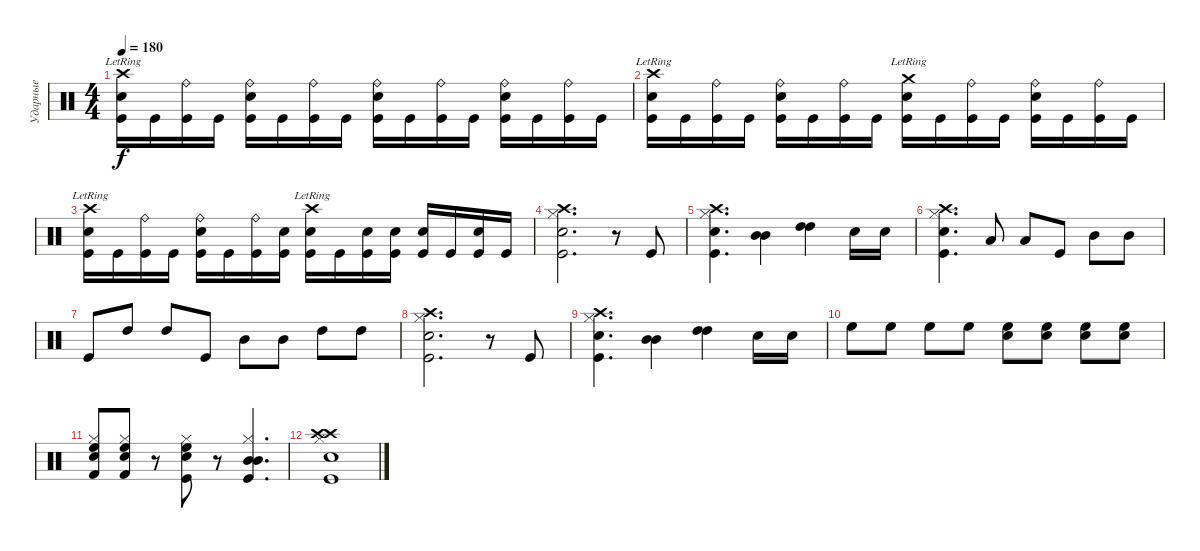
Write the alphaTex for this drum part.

\track ("Ударные" "Ударные") {instrument percussion}
\staff {score}
\articulation defaults
\ts (4 4)
\tempo 180
\clef neutral
\ks c
("Crash high (hit)"{lr} "Electric Snare (hit)" "Kick (hit)").16{dy f} "Kick (hit)".16 ("Ride (bell)" "Kick (hit)").16 "Kick (hit)".16 ("Ride (bell)" "Electric Snare (hit)" "Kick (hit)").16 "Kick (hit)".16 ("Ride (bell)" "Kick (hit)").16 "Kick (hit)".16 ("Ride (bell)" "Electric Snare (hit)" "Kick (hit)").16 "Kick (hit)".16 ("Ride (bell)" "Kick (hit)").16 "Kick (hit)".16 ("Ride (bell)" "Electric Snare (hit)" "Kick (hit)").16 "Kick (hit)".16 ("Ride (bell)" "Kick (hit)").16 "Kick (hit)".16 |
("Crash high (hit)"{lr} "Electric Snare (hit)" "Kick (hit)").16 "Kick (hit)".16 ("Ride (bell)" "Kick (hit)").16 "Kick (hit)".16 ("Ride (bell)" "Electric Snare (hit)" "Kick (hit)").16 "Kick (hit)".16 ("Ride (bell)" "Kick (hit)").16 "Kick (hit)".16 ("Crash medium (hit)"{lr} "Electric Snare (hit)" "Kick (hit)").16 "Kick (hit)".16 ("Ride (bell)" "Kick (hit)").16 "Kick (hit)".16 ("Ride (bell)" "Electric Snare (hit)" "Kick (hit)").16 "Kick (hit)".16 ("Ride (bell)" "Kick (hit)").16 "Kick (hit)".16 |
("Crash high (hit)"{lr} "Electric Snare (hit)" "Kick (hit)").16 "Kick (hit)".16 ("Ride (bell)" "Kick (hit)").16 "Kick (hit)".16 ("Ride (bell)" "Electric Snare (hit)" "Kick (hit)").16 "Kick (hit)".16 ("Ride (bell)" "Kick (hit)").16 ("Electric Snare (hit)" "Kick (hit)").16 ("Crash high (hit)"{lr} "Electric Snare (hit)" "Kick (hit)").16 "Kick (hit)".16 ("Electric Snare (hit)" "Kick (hit)").16 ("Electric Snare (hit)" "Kick (hit)").16 ("Electric Snare (hit)" "Kick (hit)").16 "Kick (hit)".16 ("Electric Snare (hit)" "Kick (hit)").16 "Kick (hit)".16 |
("Crash high (hit)" "Hi-Hat (closed)" "Electric Snare (hit)" "Kick (hit)").2{d} r.8 "Kick (hit)".8 |
("Crash high (hit)" "Hi-Hat (closed)" "Electric Snare (hit)" "Kick (hit)").4{d} ("Mid Tom (hit)" "Mid Tom (hit)").4 ("High Tom (hit)" "High Tom (hit)").4 "Electric Snare (hit)".16 "Electric Snare (hit)".16 |
("Crash high (hit)" "Hi-Hat (closed)" "Electric Snare (hit)" "Kick (hit)").4{d} "Low Tom (hit)".8 "Low Tom (hit)".8 "Kick (hit)".8 "Mid Tom (hit)".8 "Mid Tom (hit)".8 |
"Kick (hit)".8 "High Tom (hit)".8 "High Tom (hit)".8 "Kick (hit)".8 "Mid Tom (hit)".8 "Mid Tom (hit)".8 "High Tom (hit)".8 "High Tom (hit)".8 |
("Crash high (hit)" "Hi-Hat (closed)" "Electric Snare (hit)" "Kick (hit)").2{d} r.8 "Kick (hit)".8 |
("Crash high (hit)" "Hi-Hat (closed)" "Electric Snare (hit)" "Kick (hit)").4{d} ("Mid Tom (hit)" "Mid Tom (hit)").4 ("High Tom (hit)" "High Tom (hit)").4 "Electric Snare (hit)".16 "Electric Snare (hit)".16 |
"High Floor Tom (hit)".8 "High Floor Tom (hit)".8 "High Floor Tom (hit)".8 "High Floor Tom (hit)".8 ("Electric Snare (hit)" "High Floor Tom (hit)").8 ("Electric Snare (hit)" "High Floor Tom (hit)").8 ("Electric Snare (hit)" "High Floor Tom (hit)").8 ("Electric Snare (hit)" "High Floor Tom (hit)").8 |
("Hi-Hat (closed)" "Electric Snare (hit)" "High Floor Tom (hit)" "Kick (hit) 2").8 ("Hi-Hat (closed)" "Electric Snare (hit)" "High Floor Tom (hit)" "Kick (hit) 2").8 r.8 ("Hi-Hat (closed)" "Electric Snare (hit)" "High Floor Tom (hit)" "Kick (hit)").8 r.8 ("Hi-Hat (closed)" "Mid Tom (hit)" "Mid Tom (hit)" "Kick (hit)").4{d} |
("Crash high (hit)" "Crash high (hit)" "Hi-Hat (closed)" "Electric Snare (hit)" "Kick (hit)").1
